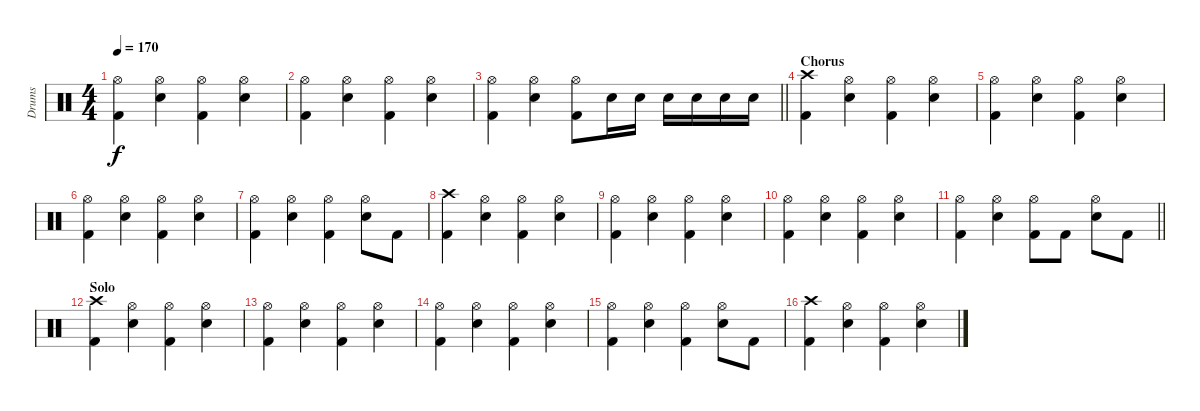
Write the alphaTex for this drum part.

\track ("Drums" "Drums") {instrument percussion}
\staff {score}
\articulation defaults
\ts (4 4)
\tempo 170
\clef neutral
\ks c
("Hi-Hat (open)" "Kick (hit) 2").4{dy f} ("Hi-Hat (open)" "Snare (hit) 2").4 ("Hi-Hat (open)" "Kick (hit) 2").4 ("Hi-Hat (open)" "Snare (hit) 2").4 |
("Hi-Hat (open)" "Kick (hit) 2").4 ("Hi-Hat (open)" "Snare (hit) 2").4 ("Hi-Hat (open)" "Kick (hit) 2").4 ("Hi-Hat (open)" "Snare (hit) 2").4 |
\barLineRight lightlight
("Hi-Hat (open)" "Kick (hit) 2").4 ("Hi-Hat (open)" "Snare (hit) 2").4 ("Hi-Hat (open)" "Kick (hit) 2").8 "Snare (hit) 2".16 "Snare (hit) 2".16 "Snare (hit) 2".16 "Snare (hit) 2".16 "Snare (hit) 2".16 "Snare (hit) 2".16 |
\section ("" "Chorus")
("Crash high (hit)" "Kick (hit) 2").4 ("Hi-Hat (open)" "Snare (hit) 2").4 ("Hi-Hat (open)" "Kick (hit) 2").4 ("Hi-Hat (open)" "Snare (hit) 2").4 |
("Hi-Hat (open)" "Kick (hit) 2").4 ("Hi-Hat (open)" "Snare (hit) 2").4 ("Hi-Hat (open)" "Kick (hit) 2").4 ("Hi-Hat (open)" "Snare (hit) 2").4 |
("Hi-Hat (open)" "Kick (hit) 2").4 ("Hi-Hat (open)" "Snare (hit) 2").4 ("Hi-Hat (open)" "Kick (hit) 2").4 ("Hi-Hat (open)" "Snare (hit) 2").4 |
("Hi-Hat (open)" "Kick (hit) 2").4 ("Hi-Hat (open)" "Snare (hit) 2").4 ("Hi-Hat (open)" "Kick (hit) 2").4 ("Hi-Hat (open)" "Snare (hit) 2").8 "Kick (hit) 2".8 |
("Crash high (hit)" "Kick (hit) 2").4 ("Hi-Hat (open)" "Snare (hit) 2").4 ("Hi-Hat (open)" "Kick (hit) 2").4 ("Hi-Hat (open)" "Snare (hit) 2").4 |
("Hi-Hat (open)" "Kick (hit) 2").4 ("Hi-Hat (open)" "Snare (hit) 2").4 ("Hi-Hat (open)" "Kick (hit) 2").4 ("Hi-Hat (open)" "Snare (hit) 2").4 |
("Hi-Hat (open)" "Kick (hit) 2").4 ("Hi-Hat (open)" "Snare (hit) 2").4 ("Hi-Hat (open)" "Kick (hit) 2").4 ("Hi-Hat (open)" "Snare (hit) 2").4 |
\barLineRight lightlight
("Hi-Hat (open)" "Kick (hit) 2").4 ("Hi-Hat (open)" "Snare (hit) 2").4 ("Hi-Hat (open)" "Kick (hit) 2").8 "Kick (hit) 2".8 ("Hi-Hat (open)" "Snare (hit) 2").8 "Kick (hit) 2".8 |
\section ("" "Solo")
("Crash high (hit)" "Kick (hit) 2").4 ("Hi-Hat (open)" "Snare (hit) 2").4 ("Hi-Hat (open)" "Kick (hit) 2").4 ("Hi-Hat (open)" "Snare (hit) 2").4 |
("Hi-Hat (open)" "Kick (hit) 2").4 ("Hi-Hat (open)" "Snare (hit) 2").4 ("Hi-Hat (open)" "Kick (hit) 2").4 ("Hi-Hat (open)" "Snare (hit) 2").4 |
("Hi-Hat (open)" "Kick (hit) 2").4 ("Hi-Hat (open)" "Snare (hit) 2").4 ("Hi-Hat (open)" "Kick (hit) 2").4 ("Hi-Hat (open)" "Snare (hit) 2").4 |
("Hi-Hat (open)" "Kick (hit) 2").4 ("Hi-Hat (open)" "Snare (hit) 2").4 ("Hi-Hat (open)" "Kick (hit) 2").4 ("Hi-Hat (open)" "Snare (hit) 2").8 "Kick (hit) 2".8 |
("Crash high (hit)" "Kick (hit) 2").4 ("Hi-Hat (open)" "Snare (hit) 2").4 ("Hi-Hat (open)" "Kick (hit) 2").4 ("Hi-Hat (open)" "Snare (hit) 2").4
